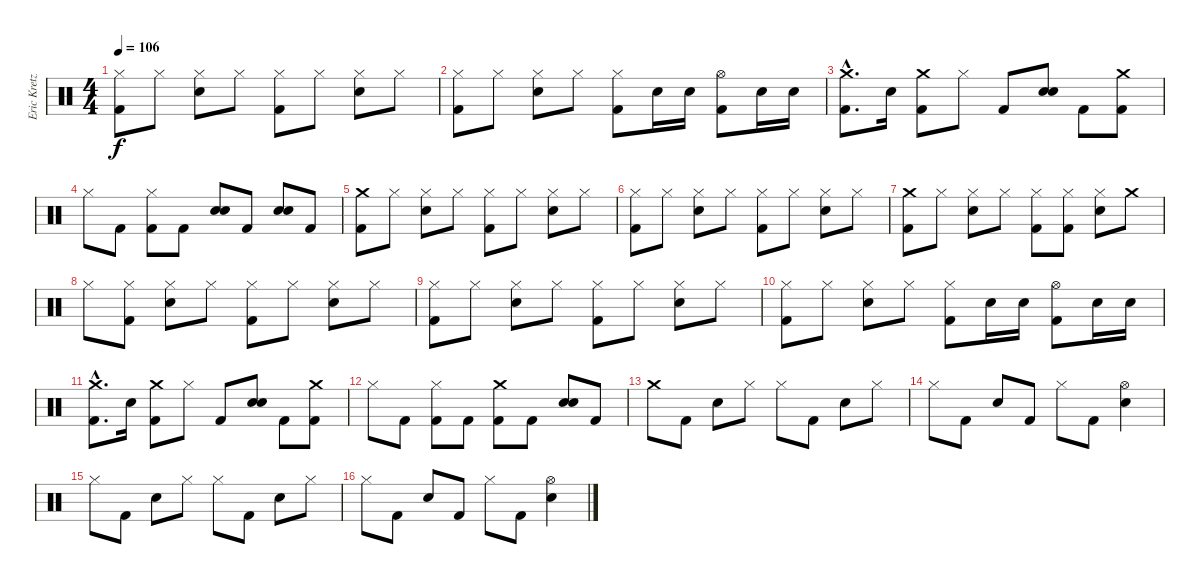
\track ("Eric Kretz" "Eric Kretz") {instrument percussion}
\staff {score}
\articulation defaults
\ts (4 4)
\tempo 106
\clef neutral
\ks c
("Hi-Hat (closed)" "Kick (hit) 2").8{dy f} "Hi-Hat (closed)".8 ("Hi-Hat (closed)" "Electric Snare (hit)").8 "Hi-Hat (closed)".8 ("Hi-Hat (closed)" "Kick (hit) 2").8 "Hi-Hat (closed)".8 ("Hi-Hat (closed)" "Electric Snare (hit)").8 "Hi-Hat (closed)".8 |
("Hi-Hat (closed)" "Kick (hit) 2").8 "Hi-Hat (closed)".8 ("Hi-Hat (closed)" "Electric Snare (hit)").8 "Hi-Hat (closed)".8 ("Hi-Hat (closed)" "Kick (hit) 2").8 "Electric Snare (hit)".16 "Electric Snare (hit)".16 ("Hi-Hat (open)" "Kick (hit) 2").8 "Electric Snare (hit)".16 "Electric Snare (hit)".16 |
("Crash medium (hit)"{hac} "Kick (hit) 2"{hac}).8{d} "Electric Snare (hit)".16 ("Crash medium (hit)" "Kick (hit) 2").8 "Hi-Hat (closed)".8 "Kick (hit) 2".8 ("Electric Snare (hit)" "Electric Snare (hit)").8 "Kick (hit) 2".8 ("Crash medium (hit)" "Kick (hit) 2").8 |
"Hi-Hat (closed)".8 "Kick (hit) 2".8 ("Hi-Hat (closed)" "Kick (hit) 2").8 "Kick (hit) 2".8 ("Electric Snare (hit)" "Electric Snare (hit)").8 "Kick (hit) 2".8 ("Electric Snare (hit)" "Electric Snare (hit)").8 "Kick (hit) 2".8 |
("Crash medium (hit)" "Kick (hit) 2").8 "Hi-Hat (closed)".8 ("Hi-Hat (closed)" "Electric Snare (hit)").8 "Hi-Hat (closed)".8 ("Hi-Hat (closed)" "Kick (hit) 2").8 "Hi-Hat (closed)".8 ("Hi-Hat (closed)" "Electric Snare (hit)").8 "Hi-Hat (closed)".8 |
("Hi-Hat (closed)" "Kick (hit) 2").8 "Hi-Hat (closed)".8 ("Hi-Hat (closed)" "Electric Snare (hit)").8 "Hi-Hat (closed)".8 ("Hi-Hat (closed)" "Kick (hit) 2").8 "Hi-Hat (closed)".8 ("Hi-Hat (closed)" "Electric Snare (hit)").8 "Hi-Hat (closed)".8 |
("Crash medium (hit)" "Kick (hit) 2").8 "Hi-Hat (closed)".8 ("Hi-Hat (closed)" "Electric Snare (hit)").8 "Hi-Hat (closed)".8 ("Hi-Hat (closed)" "Kick (hit) 2").8 ("Hi-Hat (closed)" "Kick (hit) 2").8 ("Hi-Hat (closed)" "Electric Snare (hit)").8 "Crash medium (hit)".8 |
"Hi-Hat (closed)".8 ("Hi-Hat (closed)" "Kick (hit) 2").8 ("Hi-Hat (closed)" "Electric Snare (hit)").8 "Hi-Hat (closed)".8 ("Hi-Hat (closed)" "Kick (hit) 2").8 "Hi-Hat (closed)".8 ("Hi-Hat (closed)" "Electric Snare (hit)").8 "Hi-Hat (closed)".8 |
("Hi-Hat (closed)" "Kick (hit) 2").8 "Hi-Hat (closed)".8 ("Hi-Hat (closed)" "Electric Snare (hit)").8 "Hi-Hat (closed)".8 ("Hi-Hat (closed)" "Kick (hit) 2").8 "Hi-Hat (closed)".8 ("Hi-Hat (closed)" "Electric Snare (hit)").8 "Hi-Hat (closed)".8 |
("Hi-Hat (closed)" "Kick (hit) 2").8 "Hi-Hat (closed)".8 ("Hi-Hat (closed)" "Electric Snare (hit)").8 "Hi-Hat (closed)".8 ("Hi-Hat (closed)" "Kick (hit) 2").8 "Electric Snare (hit)".16 "Electric Snare (hit)".16 ("Hi-Hat (open)" "Kick (hit) 2").8 "Electric Snare (hit)".16 "Electric Snare (hit)".16 |
("Crash medium (hit)"{hac} "Kick (hit) 2"{hac}).8{d} "Electric Snare (hit)".16 ("Crash medium (hit)" "Kick (hit) 2").8 "Hi-Hat (closed)".8 "Kick (hit) 2".8 ("Electric Snare (hit)" "Electric Snare (hit)").8 "Kick (hit) 2".8 ("Crash medium (hit)" "Kick (hit) 2").8 |
"Hi-Hat (closed)".8 "Kick (hit) 2".8 ("Hi-Hat (closed)" "Kick (hit) 2").8 "Kick (hit) 2".8 ("Crash medium (hit)" "Kick (hit) 2").8 "Kick (hit) 2".8 ("Electric Snare (hit)" "Electric Snare (hit)").8 "Kick (hit) 2".8 |
"Crash medium (hit)".8 "Kick (hit) 2".8 "Electric Snare (hit)".8 "Hi-Hat (closed)".8 "Hi-Hat (closed)".8 "Kick (hit) 2".8 "Electric Snare (hit)".8 "Hi-Hat (closed)".8 |
"Hi-Hat (closed)".8 "Kick (hit) 2".8 "Electric Snare (hit)".8 "Kick (hit) 2".8 "Hi-Hat (closed)".8 "Kick (hit) 2".8 ("Hi-Hat (open)" "Electric Snare (hit)").4 |
"Hi-Hat (closed)".8 "Kick (hit) 2".8 "Electric Snare (hit)".8 "Hi-Hat (closed)".8 "Hi-Hat (closed)".8 "Kick (hit) 2".8 "Electric Snare (hit)".8 "Hi-Hat (closed)".8 |
"Hi-Hat (closed)".8 "Kick (hit) 2".8 "Electric Snare (hit)".8 "Kick (hit) 2".8 "Hi-Hat (closed)".8 "Kick (hit) 2".8 ("Hi-Hat (open)" "Electric Snare (hit)").4
